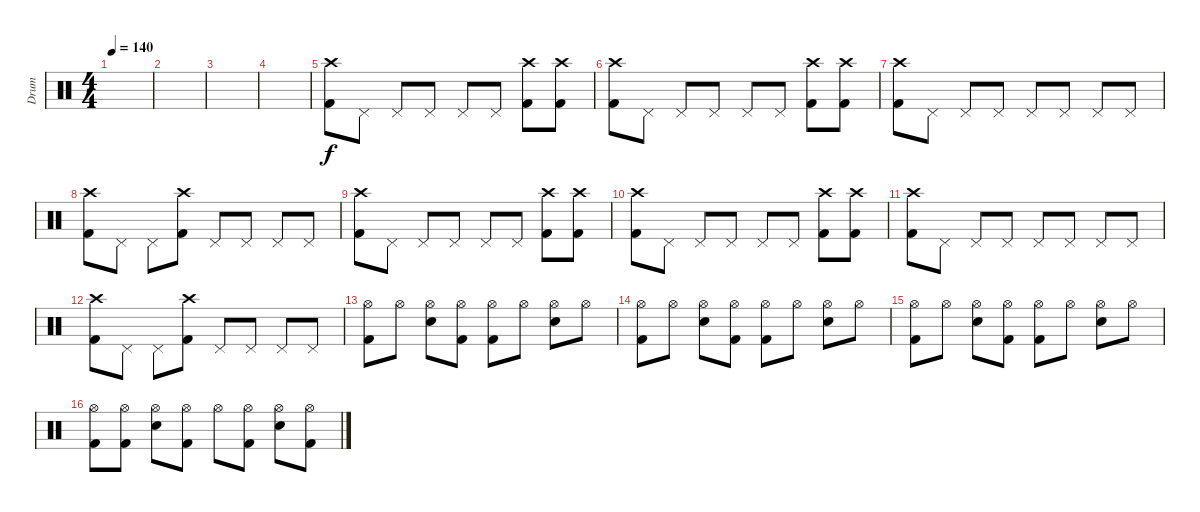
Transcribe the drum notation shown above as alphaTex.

\track ("Drum" "Drum") {instrument percussion}
\staff {score}
\articulation defaults
\ts (4 4)
\tempo 140
\clef neutral
\ks c
|
|
|
|
("Kick (hit) 2" "Crash high (hit)").8 "Pedal Hi-Hat (hit)".8 "Pedal Hi-Hat (hit)".8 "Pedal Hi-Hat (hit)".8 "Pedal Hi-Hat (hit)".8 "Pedal Hi-Hat (hit)".8 ("Kick (hit) 2" "Crash high (hit)").8 ("Kick (hit) 2" "Crash high (hit)").8 |
("Kick (hit) 2" "Crash high (hit)").8 "Pedal Hi-Hat (hit)".8 "Pedal Hi-Hat (hit)".8 "Pedal Hi-Hat (hit)".8 "Pedal Hi-Hat (hit)".8 "Pedal Hi-Hat (hit)".8 ("Kick (hit) 2" "Crash high (hit)").8 ("Kick (hit) 2" "Crash high (hit)").8 |
("Kick (hit) 2" "Crash high (hit)").8 "Pedal Hi-Hat (hit)".8 "Pedal Hi-Hat (hit)".8 "Pedal Hi-Hat (hit)".8 "Pedal Hi-Hat (hit)".8 "Pedal Hi-Hat (hit)".8 "Pedal Hi-Hat (hit)".8 "Pedal Hi-Hat (hit)".8 |
("Kick (hit) 2" "Crash high (hit)").8 "Pedal Hi-Hat (hit)".8 "Pedal Hi-Hat (hit)".8 ("Kick (hit) 2" "Crash high (hit)").8 "Pedal Hi-Hat (hit)".8 "Pedal Hi-Hat (hit)".8 "Pedal Hi-Hat (hit)".8 "Pedal Hi-Hat (hit)".8 |
("Kick (hit) 2" "Crash high (hit)").8 "Pedal Hi-Hat (hit)".8 "Pedal Hi-Hat (hit)".8 "Pedal Hi-Hat (hit)".8 "Pedal Hi-Hat (hit)".8 "Pedal Hi-Hat (hit)".8 ("Kick (hit) 2" "Crash high (hit)").8 ("Kick (hit) 2" "Crash high (hit)").8 |
("Kick (hit) 2" "Crash high (hit)").8 "Pedal Hi-Hat (hit)".8 "Pedal Hi-Hat (hit)".8 "Pedal Hi-Hat (hit)".8 "Pedal Hi-Hat (hit)".8 "Pedal Hi-Hat (hit)".8 ("Kick (hit) 2" "Crash high (hit)").8 ("Kick (hit) 2" "Crash high (hit)").8 |
("Kick (hit) 2" "Crash high (hit)").8 "Pedal Hi-Hat (hit)".8 "Pedal Hi-Hat (hit)".8 "Pedal Hi-Hat (hit)".8 "Pedal Hi-Hat (hit)".8 "Pedal Hi-Hat (hit)".8 "Pedal Hi-Hat (hit)".8 "Pedal Hi-Hat (hit)".8 |
("Kick (hit) 2" "Crash high (hit)").8 "Pedal Hi-Hat (hit)".8 "Pedal Hi-Hat (hit)".8 ("Kick (hit) 2" "Crash high (hit)").8 "Pedal Hi-Hat (hit)".8 "Pedal Hi-Hat (hit)".8 "Pedal Hi-Hat (hit)".8 "Pedal Hi-Hat (hit)".8 |
("Kick (hit) 2" "Hi-Hat (open)").8 "Hi-Hat (open)".8 ("Electric Snare (hit)" "Hi-Hat (open)").8 ("Kick (hit) 2" "Hi-Hat (open)").8 ("Kick (hit) 2" "Hi-Hat (open)").8 "Hi-Hat (open)".8 ("Electric Snare (hit)" "Hi-Hat (open)").8 "Hi-Hat (open)".8 |
("Kick (hit) 2" "Hi-Hat (open)").8 "Hi-Hat (open)".8 ("Electric Snare (hit)" "Hi-Hat (open)").8 ("Kick (hit) 2" "Hi-Hat (open)").8 ("Kick (hit) 2" "Hi-Hat (open)").8 "Hi-Hat (open)".8 ("Electric Snare (hit)" "Hi-Hat (open)").8 "Hi-Hat (open)".8 |
("Kick (hit) 2" "Hi-Hat (open)").8 "Hi-Hat (open)".8 ("Electric Snare (hit)" "Hi-Hat (open)").8 ("Kick (hit) 2" "Hi-Hat (open)").8 ("Kick (hit) 2" "Hi-Hat (open)").8 "Hi-Hat (open)".8 ("Electric Snare (hit)" "Hi-Hat (open)").8 "Hi-Hat (open)".8 |
("Kick (hit) 2" "Hi-Hat (open)").8 ("Kick (hit) 2" "Hi-Hat (open)").8 ("Electric Snare (hit)" "Hi-Hat (open)").8 ("Kick (hit) 2" "Hi-Hat (open)").8 "Hi-Hat (open)".8 ("Kick (hit) 2" "Hi-Hat (open)").8 ("Electric Snare (hit)" "Hi-Hat (open)").8 ("Kick (hit) 2" "Hi-Hat (open)").8
